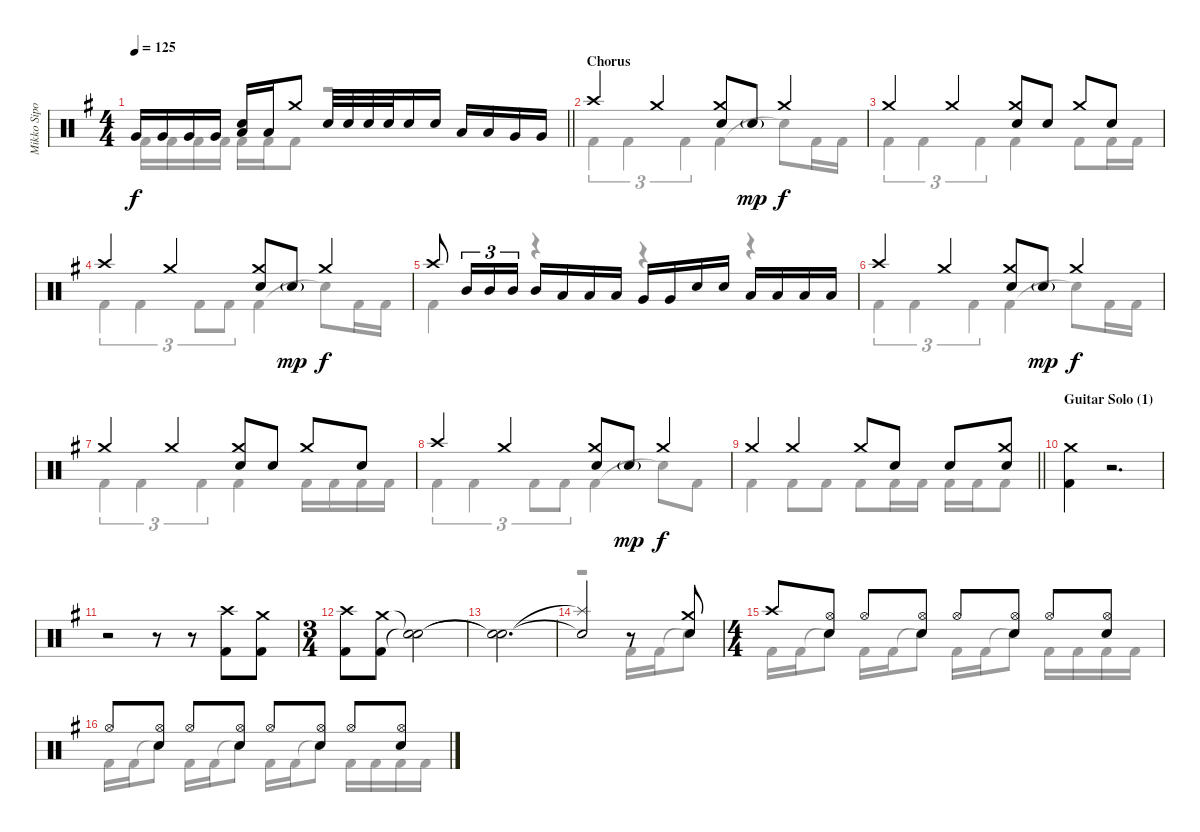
\track ("Mikko Sipola (drums)" "Mikko Sipo") {instrument percussion}
\staff {score}
\articulation defaults
\voice
\ts (4 4)
\tempo 125
\clef neutral
\barLineRight lightlight
\ks g "Very Low Tom (hit)".16{dy f} "Very Low Tom (hit)".16 "Very Low Tom (hit)".16 "Very Low Tom (hit)".16
("Low Tom (hit)" "Electric Snare (hit)").16 "Low Tom (hit)".16 "Crash medium (hit)".8 "Electric Snare (hit)".32 "Electric Snare (hit)".32 "Electric Snare (hit)".32 "Electric Snare (hit)".32 "Electric Snare (hit)".16 "Electric Snare (hit)".16 "Low Tom (hit)".16 "Low Tom (hit)".16 "Very Low Tom (hit)".16 "Very Low Tom (hit)".16 |
\section ("" "Chorus")
\ks eminor "Crash high (hit)".4 "Crash medium (hit)".4
("Crash medium (hit)" "Electric Snare (hit)").8 "Electric Snare (hit)"{g}.8{dy mp} "Crash medium (hit)".4{dy f} |
"Crash medium (hit)".4 "Crash medium (hit)".4 ("Crash medium (hit)" "Electric Snare (hit)").8 "Electric Snare (hit)".8 "Crash medium (hit)".8 "Electric Snare (hit)".8 |
"Crash high (hit)".4 "Crash medium (hit)".4 ("Crash medium (hit)" "Electric Snare (hit)").8 "Electric Snare (hit)"{g}.8{dy mp} "Crash medium (hit)".4{dy f} |
"Crash high (hit)".8 "Mid Tom (hit)".16{tu (3 2)} "Mid Tom (hit)".16{tu (3 2)} "Mid Tom (hit)".16{tu (3 2)} "Mid Tom (hit)".16 "Low Tom (hit)".16 "Low Tom (hit)".16 "Low Tom (hit)".16 "Very Low Tom (hit)".16 "Very Low Tom (hit)".16 "Electric Snare (hit)".16 "Electric Snare (hit)".16 "Low Tom (hit)".16 "Low Tom (hit)".16 "Low Tom (hit)".16 "Low Tom (hit)".16 |
"Crash high (hit)".4 "Crash medium (hit)".4 ("Crash medium (hit)" "Electric Snare (hit)").8 "Electric Snare (hit)"{g}.8{dy mp} "Crash medium (hit)".4{dy f} |
"Crash medium (hit)".4 "Crash medium (hit)".4 ("Crash medium (hit)" "Electric Snare (hit)").8 "Electric Snare (hit)".8 "Crash medium (hit)".8 "Electric Snare (hit)".8 |
"Crash high (hit)".4 "Crash medium (hit)".4 ("Crash medium (hit)" "Electric Snare (hit)").8 "Electric Snare (hit)"{g}.8{dy mp} "Crash medium (hit)".4{dy f} |
\barLineRight lightlight "Crash medium (hit)".4 "Crash medium (hit)".4 "Crash medium (hit)".8 "Electric Snare (hit)".8 "Electric Snare (hit)".8
("Crash medium (hit)" "Electric Snare (hit)").8 |
\section ("" "Guitar Solo (1)")
("Crash medium (hit)" "Kick (hit) 2").4 r.2{d} |
r.2 r.8 r.8 ("Crash high (hit)" "Kick (hit) 2").8 ("Crash medium (hit)" "Kick (hit) 2").8 |
\ts (3 4)
("Crash high (hit)" "Kick (hit) 2").8 ("Crash medium (hit)" "Kick (hit) 2").8 ("Snare (hit)"{t} "Snare (hit)"{t}).2 |
("Snare (hit)"{t} "Snare (hit)"{t}).2{d} |
("Splash (hit)"{t} "Snare (hit)"{t}).2 r.8 ("Electric Snare (hit)" "Crash medium (hit)").8 |
\ts (4 4)
"Crash high (hit)".8 ("Hi-Hat (open)" "Electric Snare (hit)").8 "Hi-Hat (open)".8 ("Hi-Hat (open)" "Electric Snare (hit)").8 "Hi-Hat (open)".8 ("Hi-Hat (open)" "Electric Snare (hit)").8 "Hi-Hat (open)".8 ("Hi-Hat (open)" "Electric Snare (hit)").8 |
"Hi-Hat (open)".8 ("Hi-Hat (open)" "Electric Snare (hit)").8 "Hi-Hat (open)".8 ("Hi-Hat (open)" "Electric Snare (hit)").8 "Hi-Hat (open)".8 ("Hi-Hat (open)" "Electric Snare (hit)").8 "Hi-Hat (open)".8 ("Hi-Hat (open)" "Electric Snare (hit)").8
\voice
\clef neutral
\ottava regular
\simile none
\barLineRight lightlight
\ks g "Kick (hit) 2".16{dy f} "Kick (hit) 2".16 "Kick (hit) 2".16 "Kick (hit) 2".16 "Kick (hit) 2".16 "Kick (hit) 2".16 "Kick (hit) 2".8
r.2 |
\ks eminor "Kick (hit) 2".4{tu (3 2)} "Kick (hit) 2".4{tu (3 2)} "Kick (hit) 2".4{tu (3 2)} "Kick (hit) 2".4 "Snare (hit)"{t}.8 "Kick (hit) 2".16 "Kick (hit) 2".16
|
"Kick (hit) 2".4{tu (3 2)} "Kick (hit) 2".4{tu (3 2)} "Kick (hit) 2".4{tu (3 2)} "Kick (hit) 2".4 "Kick (hit) 2".8 "Kick (hit) 2".16 "Kick (hit) 2".16 |
"Kick (hit) 2".4{tu (3 2)} "Kick (hit) 2".4{tu (3 2)} "Kick (hit) 2".8{tu (3 2)} "Kick (hit) 2".8{tu (3 2)} "Kick (hit) 2".4 "Snare (hit)"{t}.8 "Kick (hit) 2".16 "Kick (hit) 2".16 |
"Kick (hit) 2".4 r.4 r.4 r.4 |
"Kick (hit) 2".4{tu (3 2)} "Kick (hit) 2".4{tu (3 2)} "Kick (hit) 2".4{tu (3 2)} "Kick (hit) 2".4 "Snare (hit)"{t}.8 "Kick (hit) 2".16 "Kick (hit) 2".16 |
"Kick (hit) 2".4{tu (3 2)} "Kick (hit) 2".4{tu (3 2)} "Kick (hit) 2".4{tu (3 2)} "Kick (hit) 2".4 "Kick (hit) 2".16 "Kick (hit) 2".16 "Kick (hit) 2".16 "Kick (hit) 2".16 |
"Kick (hit) 2".4{tu (3 2)} "Kick (hit) 2".4{tu (3 2)} "Kick (hit) 2".8{tu (3 2)} "Kick (hit) 2".8{tu (3 2)} "Kick (hit) 2".4 "Snare (hit)"{t}.8 "Kick (hit) 2".8 |
\barLineRight lightlight "Kick (hit) 2".4 "Kick (hit) 2".8 "Kick (hit) 2".8 "Kick (hit) 2".8 "Kick (hit) 2".16 "Kick (hit) 2".16 "Kick (hit) 2".16 "Kick (hit) 2".16 "Kick (hit) 2".8
|
|
|
|
|
r.2 "Kick (hit) 2".16 "Kick (hit) 2".16 "Snare (hit)"{t}.8 |
"Kick (hit) 2".16 "Kick (hit) 2".16 "Snare (hit)"{t}.8 "Kick (hit) 2".16 "Kick (hit) 2".16 "Snare (hit)"{t}.8 "Kick (hit) 2".16 "Kick (hit) 2".16 "Snare (hit)"{t}.8 "Kick (hit) 2".16 "Kick (hit) 2".16 "Kick (hit) 2".16 "Kick (hit) 2".16 |
"Kick (hit) 2".16 "Kick (hit) 2".16 "Snare (hit)"{t}.8 "Kick (hit) 2".16 "Kick (hit) 2".16 "Snare (hit)"{t}.8 "Kick (hit) 2".16 "Kick (hit) 2".16 "Snare (hit)"{t}.8 "Kick (hit) 2".16 "Kick (hit) 2".16 "Kick (hit) 2".16 "Kick (hit) 2".16
